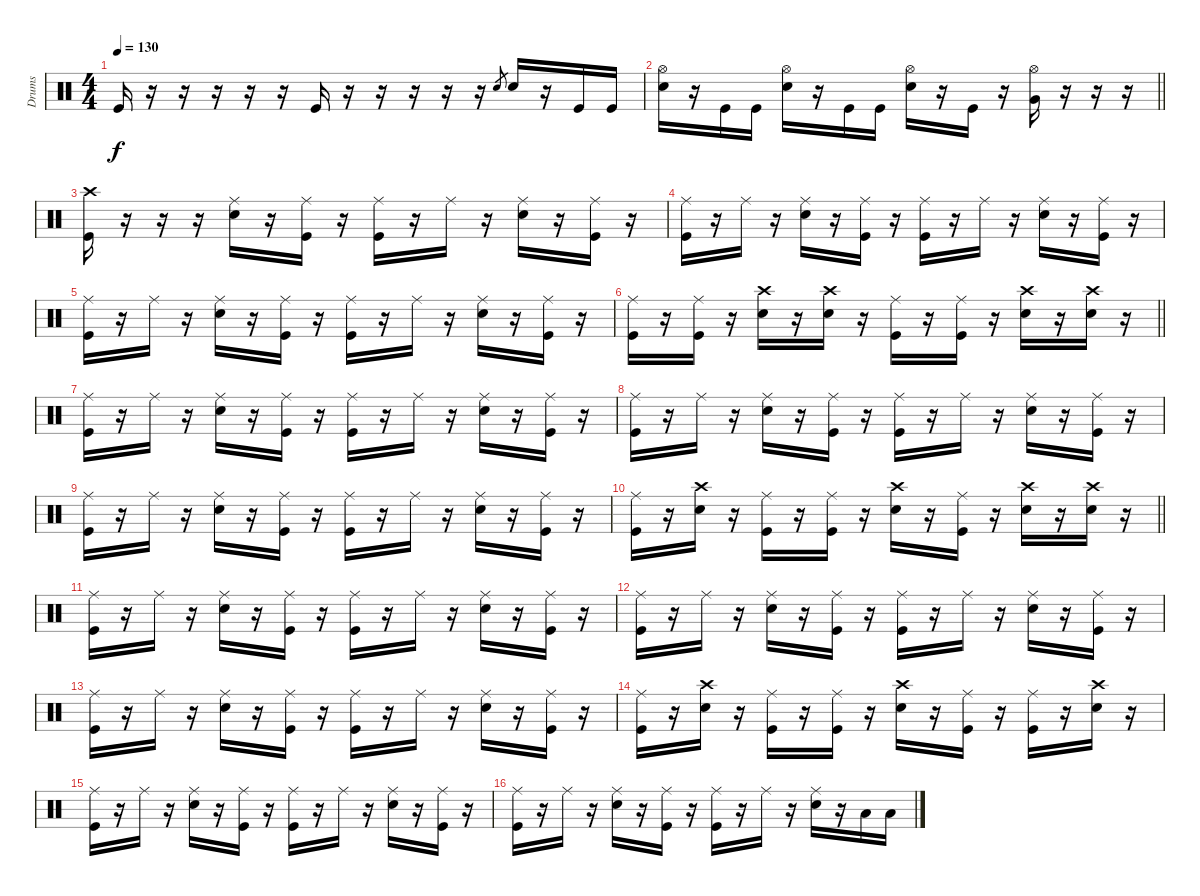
\track ("Drums" "Drums") {instrument percussion}
\staff {score}
\articulation defaults
\ts (4 4)
\tempo 130
\clef neutral
\ks c "Kick (hit)".16{dy f}
r.16 r.16 r.16 r.16 r.16 "Kick (hit)".16 r.16 r.16 r.16 r.16 r.16 "Snare (hit) 2".8{gr} "Snare (hit) 2".16 r.16 "Kick (hit)".16 "Kick (hit)".16 |
\barLineRight lightlight
("Hi-Hat (open)" "Snare (hit) 2").16 r.16 "Kick (hit)".16 "Kick (hit)".16 ("Hi-Hat (open)" "Snare (hit) 2").16 r.16 "Kick (hit)".16 "Kick (hit)".16 ("Hi-Hat (open)" "Snare (hit) 2").16 r.16 "Kick (hit)".16 r.16 ("Hi-Hat (open)" "Very Low Tom (hit)").16 r.16 r.16 r.16 |
\section ("" "")
("Kick (hit)" "Crash high (hit)").16 r.16 r.16 r.16 ("Snare (hit) 2" "Ride (middle)").16 r.16 ("Kick (hit)" "Ride (middle)").16 r.16 ("Kick (hit)" "Ride (middle)").16 r.16 "Ride (middle)".16 r.16 ("Snare (hit) 2" "Ride (middle)").16 r.16 ("Kick (hit)" "Ride (middle)").16 r.16 |
("Kick (hit)" "Ride (middle)").16 r.16 "Ride (middle)".16 r.16 ("Snare (hit) 2" "Ride (middle)").16 r.16 ("Kick (hit)" "Ride (middle)").16 r.16 ("Kick (hit)" "Ride (middle)").16 r.16 "Ride (middle)".16 r.16 ("Snare (hit) 2" "Ride (middle)").16 r.16 ("Kick (hit)" "Ride (middle)").16 r.16 |
("Kick (hit)" "Ride (middle)").16 r.16 "Ride (middle)".16 r.16 ("Snare (hit) 2" "Ride (middle)").16 r.16 ("Kick (hit)" "Ride (middle)").16 r.16 ("Kick (hit)" "Ride (middle)").16 r.16 "Ride (middle)".16 r.16 ("Snare (hit) 2" "Ride (middle)").16 r.16 ("Kick (hit)" "Ride (middle)").16 r.16 |
\barLineRight lightlight
("Kick (hit)" "Ride (middle)").16 r.16 ("Kick (hit)" "Ride (middle)").16 r.16 ("Snare (hit) 2" "Crash high (hit)").16 r.16 ("Snare (hit) 2" "Crash high (hit)").16 r.16 ("Kick (hit)" "Ride (middle)").16 r.16 ("Kick (hit)" "Ride (middle)").16 r.16 ("Snare (hit) 2" "Crash high (hit)").16 r.16 ("Snare (hit) 2" "Crash high (hit)").16 r.16 |
("Kick (hit)" "Ride (middle)").16 r.16 "Ride (middle)".16 r.16 ("Snare (hit) 2" "Ride (middle)").16 r.16 ("Kick (hit)" "Ride (middle)").16 r.16 ("Kick (hit)" "Ride (middle)").16 r.16 "Ride (middle)".16 r.16 ("Snare (hit) 2" "Ride (middle)").16 r.16 ("Kick (hit)" "Ride (middle)").16 r.16 |
("Kick (hit)" "Ride (middle)").16 r.16 "Ride (middle)".16 r.16 ("Snare (hit) 2" "Ride (middle)").16 r.16 ("Kick (hit)" "Ride (middle)").16 r.16 ("Kick (hit)" "Ride (middle)").16 r.16 "Ride (middle)".16 r.16 ("Snare (hit) 2" "Ride (middle)").16 r.16 ("Kick (hit)" "Ride (middle)").16 r.16 |
("Kick (hit)" "Ride (middle)").16 r.16 "Ride (middle)".16 r.16 ("Snare (hit) 2" "Ride (middle)").16 r.16 ("Kick (hit)" "Ride (middle)").16 r.16 ("Kick (hit)" "Ride (middle)").16 r.16 "Ride (middle)".16 r.16 ("Snare (hit) 2" "Ride (middle)").16 r.16 ("Kick (hit)" "Ride (middle)").16 r.16 |
\barLineRight lightlight
("Kick (hit)" "Ride (middle)").16 r.16 ("Snare (hit) 2" "Crash high (hit)").16 r.16 ("Kick (hit)" "Ride (middle)").16 r.16 ("Kick (hit)" "Ride (middle)").16 r.16 ("Snare (hit) 2" "Crash high (hit)").16 r.16 ("Kick (hit)" "Ride (middle)").16 r.16 ("Snare (hit) 2" "Crash high (hit)").16 r.16 ("Snare (hit) 2" "Crash high (hit)").16 r.16 |
\section ("" "")
("Kick (hit)" "Ride (middle)").16 r.16 "Ride (middle)".16 r.16 ("Snare (hit) 2" "Ride (middle)").16 r.16 ("Kick (hit)" "Ride (middle)").16 r.16 ("Kick (hit)" "Ride (middle)").16 r.16 "Ride (middle)".16 r.16 ("Snare (hit) 2" "Ride (middle)").16 r.16 ("Kick (hit)" "Ride (middle)").16 r.16 |
("Kick (hit)" "Ride (middle)").16 r.16 "Ride (middle)".16 r.16 ("Snare (hit) 2" "Ride (middle)").16 r.16 ("Kick (hit)" "Ride (middle)").16 r.16 ("Kick (hit)" "Ride (middle)").16 r.16 "Ride (middle)".16 r.16 ("Snare (hit) 2" "Ride (middle)").16 r.16 ("Kick (hit)" "Ride (middle)").16 r.16 |
("Kick (hit)" "Ride (middle)").16 r.16 "Ride (middle)".16 r.16 ("Snare (hit) 2" "Ride (middle)").16 r.16 ("Kick (hit)" "Ride (middle)").16 r.16 ("Kick (hit)" "Ride (middle)").16 r.16 "Ride (middle)".16 r.16 ("Snare (hit) 2" "Ride (middle)").16 r.16 ("Kick (hit)" "Ride (middle)").16 r.16 |
("Kick (hit)" "Ride (middle)").16 r.16 ("Snare (hit) 2" "Crash high (hit)").16 r.16 ("Kick (hit)" "Ride (middle)").16 r.16 ("Kick (hit)" "Ride (middle)").16 r.16 ("Snare (hit) 2" "Crash high (hit)").16 r.16 ("Kick (hit)" "Ride (middle)").16 r.16 ("Kick (hit)" "Ride (middle)").16 r.16 ("Snare (hit) 2" "Crash high (hit)").16 r.16 |
("Kick (hit)" "Ride (middle)").16 r.16 "Ride (middle)".16 r.16 ("Snare (hit) 2" "Ride (middle)").16 r.16 ("Kick (hit)" "Ride (middle)").16 r.16 ("Kick (hit)" "Ride (middle)").16 r.16 "Ride (middle)".16 r.16 ("Snare (hit) 2" "Ride (middle)").16 r.16 ("Kick (hit)" "Ride (middle)").16 r.16 |
("Kick (hit)" "Ride (middle)").16 r.16 "Ride (middle)".16 r.16 ("Snare (hit) 2" "Ride (middle)").16 r.16 ("Kick (hit)" "Ride (middle)").16 r.16 ("Kick (hit)" "Ride (middle)").16 r.16 "Ride (middle)".16 r.16 ("Snare (hit) 2" "Ride (middle)").16 r.16 "Low Tom (hit)".16 "Low Tom (hit)".16
